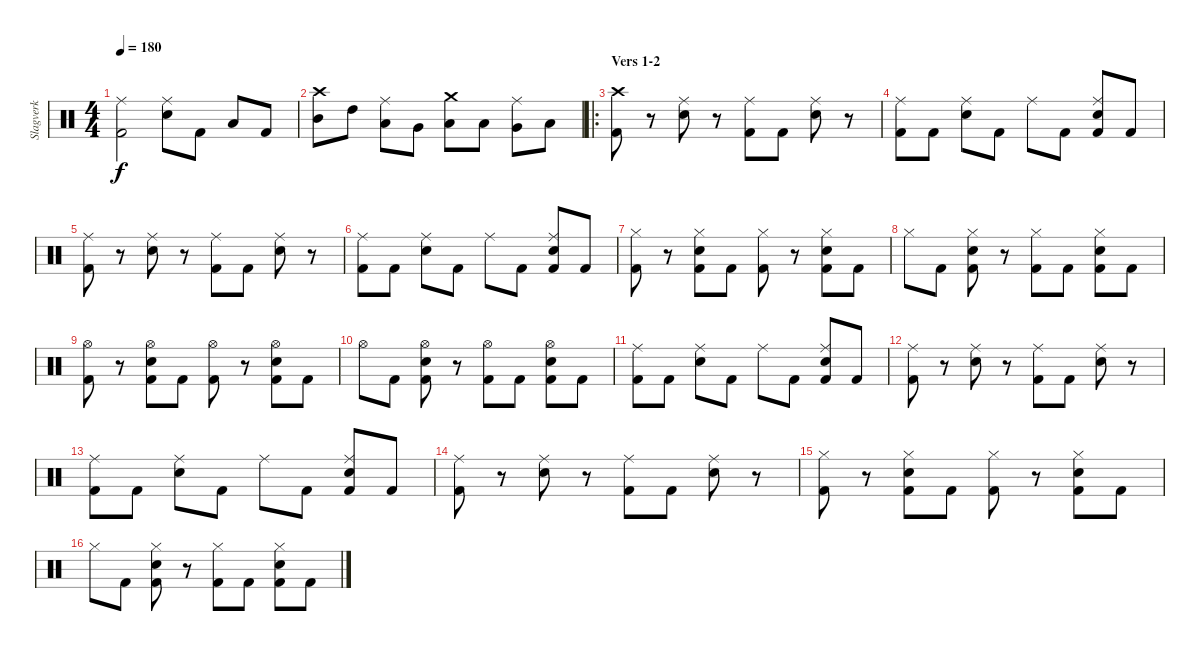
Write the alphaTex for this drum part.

\track ("Slagverk" "Slagverk") {instrument percussion}
\staff {score}
\articulation defaults
\ts (4 4)
\tempo 180
\clef neutral
\ks c
("Kick (hit) 2" "Ride (middle)").2{dy f} ("Snare (hit) 2" "Ride (middle)").8 "Kick (hit) 2".8 "Low Floor Tom (hit)".8 "Kick (hit) 2".8 |
("Mid Tom (hit)" "Crash high (hit)").8 "High Tom (hit)".8 ("Low Tom (hit)" "Ride (middle)").8 "Very Low Tom (hit)".8 ("Low Floor Tom (hit)" "Crash medium (hit)").8 "Low Tom (hit)".8 ("Very Low Tom (hit)" "Ride (middle)").8 "Low Floor Tom (hit)".8 |
\ro
\section ("" "Vers 1-2")
("Kick (hit) 2" "Crash high (hit)").8 r.8 ("Snare (hit) 2" "Ride (middle)").8 r.8 ("Kick (hit) 2" "Ride (middle)").8 "Kick (hit) 2".8 ("Snare (hit) 2" "Ride (middle)").8 r.8 |
("Kick (hit) 2" "Ride (middle)").8 "Kick (hit) 2".8 ("Snare (hit) 2" "Ride (middle)").8 "Kick (hit) 2".8 "Ride (middle)".8 "Kick (hit) 2".8 ("Kick (hit) 2" "Snare (hit) 2" "Ride (middle)").8 "Kick (hit) 2".8 |
("Kick (hit) 2" "Ride (middle)").8 r.8 ("Snare (hit) 2" "Ride (middle)").8 r.8 ("Kick (hit) 2" "Ride (middle)").8 "Kick (hit) 2".8 ("Snare (hit) 2" "Ride (middle)").8 r.8 |
("Kick (hit) 2" "Ride (middle)").8 "Kick (hit) 2".8 ("Snare (hit) 2" "Ride (middle)").8 "Kick (hit) 2".8 "Ride (middle)".8 "Kick (hit) 2".8 ("Kick (hit) 2" "Snare (hit) 2" "Ride (middle)").8 "Kick (hit) 2".8 |
("Kick (hit) 2" "Hi-Hat (closed)").8 r.8 ("Kick (hit) 2" "Snare (hit) 2" "Hi-Hat (closed)").8 "Kick (hit) 2".8 ("Kick (hit) 2" "Hi-Hat (closed)").8 r.8 ("Kick (hit) 2" "Snare (hit) 2" "Hi-Hat (closed)").8 "Kick (hit) 2".8 |
"Hi-Hat (closed)".8 "Kick (hit) 2".8 ("Kick (hit) 2" "Snare (hit) 2" "Hi-Hat (closed)").8 r.8 ("Kick (hit) 2" "Hi-Hat (closed)").8 "Kick (hit) 2".8 ("Kick (hit) 2" "Snare (hit) 2" "Hi-Hat (closed)").8 "Kick (hit) 2".8 |
("Kick (hit) 2" "Hi-Hat (open)").8 r.8 ("Kick (hit) 2" "Snare (hit) 2" "Hi-Hat (open)").8 "Kick (hit) 2".8 ("Kick (hit) 2" "Hi-Hat (open)").8 r.8 ("Kick (hit) 2" "Snare (hit) 2" "Hi-Hat (open)").8 "Kick (hit) 2".8 |
"Hi-Hat (open)".8 "Kick (hit) 2".8 ("Kick (hit) 2" "Snare (hit) 2" "Hi-Hat (open)").8 r.8 ("Kick (hit) 2" "Hi-Hat (open)").8 "Kick (hit) 2".8 ("Kick (hit) 2" "Snare (hit) 2" "Hi-Hat (open)").8 "Kick (hit) 2".8 |
("Kick (hit) 2" "Ride (middle)").8 "Kick (hit) 2".8 ("Snare (hit) 2" "Ride (middle)").8 "Kick (hit) 2".8 "Ride (middle)".8 "Kick (hit) 2".8 ("Kick (hit) 2" "Snare (hit) 2" "Ride (middle)").8 "Kick (hit) 2".8 |
("Kick (hit) 2" "Ride (middle)").8 r.8 ("Snare (hit) 2" "Ride (middle)").8 r.8 ("Kick (hit) 2" "Ride (middle)").8 "Kick (hit) 2".8 ("Snare (hit) 2" "Ride (middle)").8 r.8 |
("Kick (hit) 2" "Ride (middle)").8 "Kick (hit) 2".8 ("Snare (hit) 2" "Ride (middle)").8 "Kick (hit) 2".8 "Ride (middle)".8 "Kick (hit) 2".8 ("Kick (hit) 2" "Snare (hit) 2" "Ride (middle)").8 "Kick (hit) 2".8 |
("Kick (hit) 2" "Ride (middle)").8 r.8 ("Snare (hit) 2" "Ride (middle)").8 r.8 ("Kick (hit) 2" "Ride (middle)").8 "Kick (hit) 2".8 ("Snare (hit) 2" "Ride (middle)").8 r.8 |
("Kick (hit) 2" "Hi-Hat (closed)").8 r.8 ("Kick (hit) 2" "Snare (hit) 2" "Hi-Hat (closed)").8 "Kick (hit) 2".8 ("Kick (hit) 2" "Hi-Hat (closed)").8 r.8 ("Kick (hit) 2" "Snare (hit) 2" "Hi-Hat (closed)").8 "Kick (hit) 2".8 |
"Hi-Hat (closed)".8 "Kick (hit) 2".8 ("Kick (hit) 2" "Snare (hit) 2" "Hi-Hat (closed)").8 r.8 ("Kick (hit) 2" "Hi-Hat (closed)").8 "Kick (hit) 2".8 ("Kick (hit) 2" "Snare (hit) 2" "Hi-Hat (closed)").8 "Kick (hit) 2".8
